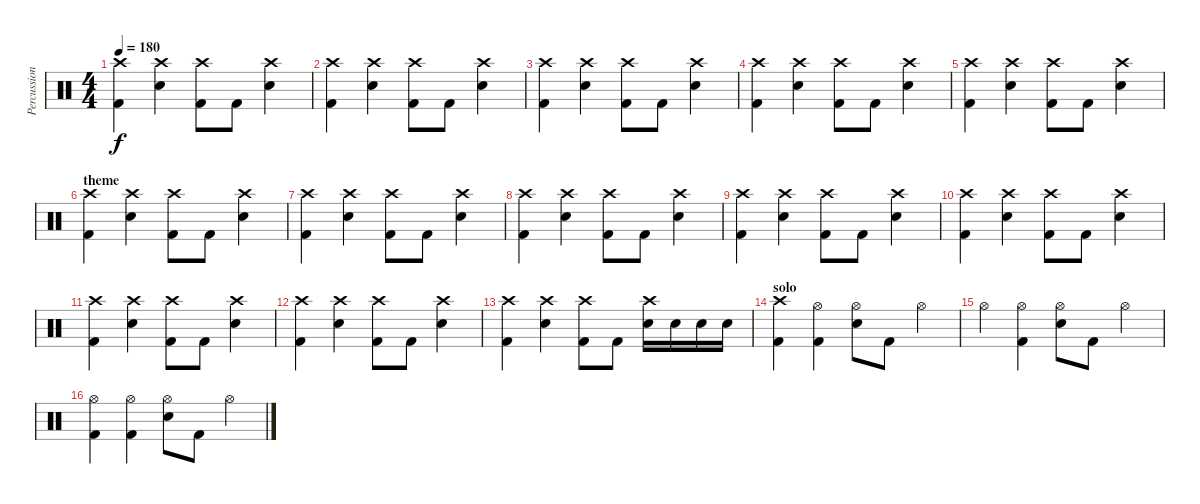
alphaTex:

\track ("Percussions" "Percussion") {instrument percussion}
\staff {score}
\articulation defaults
\ts (4 4)
\tempo 180
\clef neutral
\ks c
("Crash high (hit)" "Kick (hit) 2").4{dy f} ("Crash high (hit)" "Snare (hit) 2").4 ("Crash high (hit)" "Kick (hit) 2").8 "Kick (hit) 2".8 ("Crash high (hit)" "Snare (hit) 2").4 |
("Crash high (hit)" "Kick (hit) 2").4 ("Crash high (hit)" "Snare (hit) 2").4 ("Crash high (hit)" "Kick (hit) 2").8 "Kick (hit) 2".8 ("Crash high (hit)" "Snare (hit) 2").4 |
("Crash high (hit)" "Kick (hit) 2").4 ("Crash high (hit)" "Snare (hit) 2").4 ("Crash high (hit)" "Kick (hit) 2").8 "Kick (hit) 2".8 ("Crash high (hit)" "Snare (hit) 2").4 |
("Crash high (hit)" "Kick (hit) 2").4 ("Crash high (hit)" "Snare (hit) 2").4 ("Crash high (hit)" "Kick (hit) 2").8 "Kick (hit) 2".8 ("Crash high (hit)" "Snare (hit) 2").4 |
("Crash high (hit)" "Kick (hit) 2").4 ("Crash high (hit)" "Snare (hit) 2").4 ("Crash high (hit)" "Kick (hit) 2").8 "Kick (hit) 2".8 ("Crash high (hit)" "Snare (hit) 2").4 |
\section ("" "theme")
("Crash high (hit)" "Kick (hit) 2").4 ("Crash high (hit)" "Snare (hit) 2").4 ("Crash high (hit)" "Kick (hit) 2").8 "Kick (hit) 2".8 ("Crash high (hit)" "Snare (hit) 2").4 |
("Crash high (hit)" "Kick (hit) 2").4 ("Crash high (hit)" "Snare (hit) 2").4 ("Crash high (hit)" "Kick (hit) 2").8 "Kick (hit) 2".8 ("Crash high (hit)" "Snare (hit) 2").4 |
("Crash high (hit)" "Kick (hit) 2").4 ("Crash high (hit)" "Snare (hit) 2").4 ("Crash high (hit)" "Kick (hit) 2").8 "Kick (hit) 2".8 ("Crash high (hit)" "Snare (hit) 2").4 |
("Crash high (hit)" "Kick (hit) 2").4 ("Crash high (hit)" "Snare (hit) 2").4 ("Crash high (hit)" "Kick (hit) 2").8 "Kick (hit) 2".8 ("Crash high (hit)" "Snare (hit) 2").4 |
("Crash high (hit)" "Kick (hit) 2").4 ("Crash high (hit)" "Snare (hit) 2").4 ("Crash high (hit)" "Kick (hit) 2").8 "Kick (hit) 2".8 ("Crash high (hit)" "Snare (hit) 2").4 |
("Crash high (hit)" "Kick (hit) 2").4 ("Crash high (hit)" "Snare (hit) 2").4 ("Crash high (hit)" "Kick (hit) 2").8 "Kick (hit) 2".8 ("Crash high (hit)" "Snare (hit) 2").4 |
("Crash high (hit)" "Kick (hit) 2").4 ("Crash high (hit)" "Snare (hit) 2").4 ("Crash high (hit)" "Kick (hit) 2").8 "Kick (hit) 2".8 ("Crash high (hit)" "Snare (hit) 2").4 |
("Crash high (hit)" "Kick (hit) 2").4 ("Crash high (hit)" "Snare (hit) 2").4 ("Crash high (hit)" "Kick (hit) 2").8 "Kick (hit) 2".8 ("Crash high (hit)" "Snare (hit) 2").16 "Snare (hit) 2".16 "Snare (hit) 2".16 "Snare (hit) 2".16 |
\section ("" "solo")
("Crash high (hit)" "Kick (hit) 2").4 ("Hi-Hat (open)" "Kick (hit) 2").4 ("Hi-Hat (open)" "Snare (hit) 2").8 "Kick (hit) 2".8 "Hi-Hat (open)".4 |
"Hi-Hat (open)".4 ("Hi-Hat (open)" "Kick (hit) 2").4 ("Hi-Hat (open)" "Snare (hit) 2").8 "Kick (hit) 2".8 "Hi-Hat (open)".4 |
("Hi-Hat (open)" "Kick (hit) 2").4 ("Hi-Hat (open)" "Kick (hit) 2").4 ("Hi-Hat (open)" "Snare (hit) 2").8 "Kick (hit) 2".8 "Hi-Hat (open)".4
